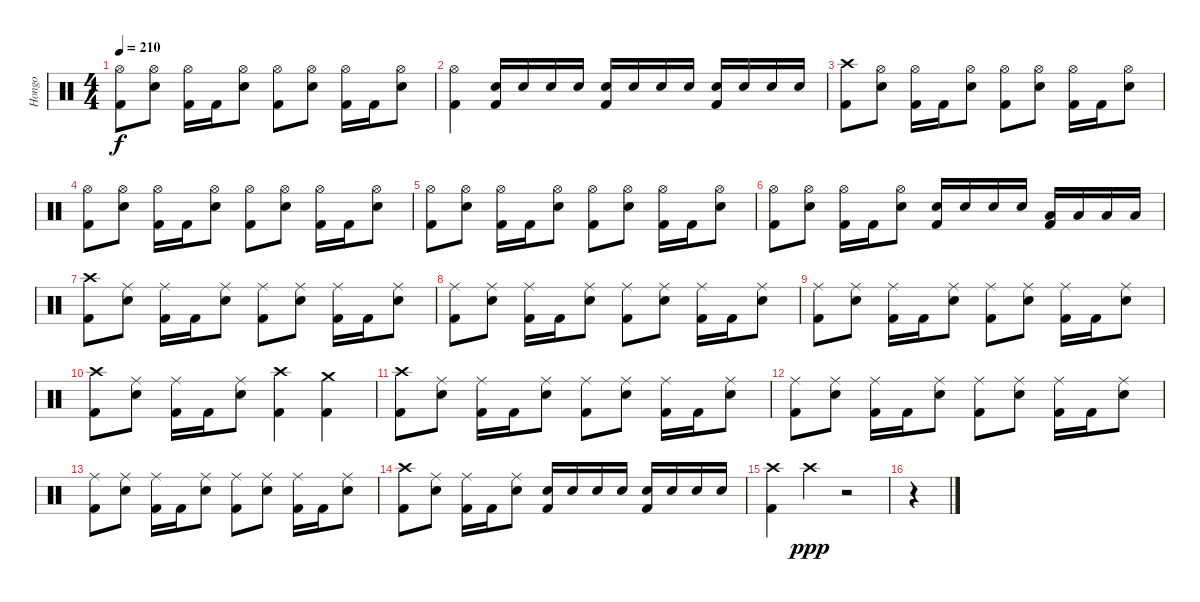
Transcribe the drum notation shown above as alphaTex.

\track ("Hongo" "Hongo") {instrument percussion}
\staff {score}
\articulation defaults
\ts (4 4)
\tempo 210
\clef neutral
\ks c
("Hi-Hat (open)" "Kick (hit) 2").8{dy f} ("Hi-Hat (open)" "Electric Snare (hit)").8 ("Hi-Hat (open)" "Kick (hit) 2").16 "Kick (hit) 2".16 ("Hi-Hat (open)" "Electric Snare (hit)").8 ("Hi-Hat (open)" "Kick (hit) 2").8 ("Hi-Hat (open)" "Electric Snare (hit)").8 ("Hi-Hat (open)" "Kick (hit) 2").16 "Kick (hit) 2".16 ("Hi-Hat (open)" "Electric Snare (hit)").8 |
("Hi-Hat (open)" "Kick (hit) 2").4 ("Electric Snare (hit)" "Kick (hit) 2").16 "Electric Snare (hit)".16 "Electric Snare (hit)".16 "Electric Snare (hit)".16 ("Electric Snare (hit)" "Kick (hit) 2").16 "Electric Snare (hit)".16 "Electric Snare (hit)".16 "Electric Snare (hit)".16 ("Electric Snare (hit)" "Kick (hit) 2").16 "Electric Snare (hit)".16 "Electric Snare (hit)".16 "Electric Snare (hit)".16 |
("Crash high (hit)" "Kick (hit) 2").8 ("Hi-Hat (open)" "Electric Snare (hit)").8 ("Hi-Hat (open)" "Kick (hit) 2").16 "Kick (hit) 2".16 ("Hi-Hat (open)" "Electric Snare (hit)").8 ("Hi-Hat (open)" "Kick (hit) 2").8 ("Hi-Hat (open)" "Electric Snare (hit)").8 ("Hi-Hat (open)" "Kick (hit) 2").16 "Kick (hit) 2".16 ("Hi-Hat (open)" "Electric Snare (hit)").8 |
("Hi-Hat (open)" "Kick (hit) 2").8 ("Hi-Hat (open)" "Electric Snare (hit)").8 ("Hi-Hat (open)" "Kick (hit) 2").16 "Kick (hit) 2".16 ("Hi-Hat (open)" "Electric Snare (hit)").8 ("Hi-Hat (open)" "Kick (hit) 2").8 ("Hi-Hat (open)" "Electric Snare (hit)").8 ("Hi-Hat (open)" "Kick (hit) 2").16 "Kick (hit) 2".16 ("Hi-Hat (open)" "Electric Snare (hit)").8 |
("Hi-Hat (open)" "Kick (hit) 2").8 ("Hi-Hat (open)" "Electric Snare (hit)").8 ("Hi-Hat (open)" "Kick (hit) 2").16 "Kick (hit) 2".16 ("Hi-Hat (open)" "Electric Snare (hit)").8 ("Hi-Hat (open)" "Kick (hit) 2").8 ("Hi-Hat (open)" "Electric Snare (hit)").8 ("Hi-Hat (open)" "Kick (hit) 2").16 "Kick (hit) 2".16 ("Hi-Hat (open)" "Electric Snare (hit)").8 |
("Hi-Hat (open)" "Kick (hit) 2").8 ("Hi-Hat (open)" "Electric Snare (hit)").8 ("Hi-Hat (open)" "Kick (hit) 2").16 "Kick (hit) 2".16 ("Hi-Hat (open)" "Electric Snare (hit)").8 ("Electric Snare (hit)" "Kick (hit) 2").16 "Electric Snare (hit)".16 "Electric Snare (hit)".16 "Electric Snare (hit)".16 ("Low Tom (hit)" "Kick (hit) 2").16 "Low Tom (hit)".16 "Low Tom (hit)".16 "Low Tom (hit)".16 |
("Crash high (hit)" "Kick (hit) 2").8 ("Ride (middle)" "Electric Snare (hit)").8 ("Ride (middle)" "Kick (hit) 2").16 "Kick (hit) 2".16 ("Ride (middle)" "Electric Snare (hit)").8 ("Ride (middle)" "Kick (hit) 2").8 ("Ride (middle)" "Electric Snare (hit)").8 ("Ride (middle)" "Kick (hit) 2").16 "Kick (hit) 2".16 ("Ride (middle)" "Electric Snare (hit)").8 |
("Ride (middle)" "Kick (hit) 2").8 ("Ride (middle)" "Electric Snare (hit)").8 ("Ride (middle)" "Kick (hit) 2").16 "Kick (hit) 2".16 ("Ride (middle)" "Electric Snare (hit)").8 ("Ride (middle)" "Kick (hit) 2").8 ("Ride (middle)" "Electric Snare (hit)").8 ("Ride (middle)" "Kick (hit) 2").16 "Kick (hit) 2".16 ("Ride (middle)" "Electric Snare (hit)").8 |
("Ride (middle)" "Kick (hit) 2").8 ("Ride (middle)" "Electric Snare (hit)").8 ("Ride (middle)" "Kick (hit) 2").16 "Kick (hit) 2".16 ("Ride (middle)" "Electric Snare (hit)").8 ("Ride (middle)" "Kick (hit) 2").8 ("Ride (middle)" "Electric Snare (hit)").8 ("Ride (middle)" "Kick (hit) 2").16 "Kick (hit) 2".16 ("Ride (middle)" "Electric Snare (hit)").8 |
("Crash high (hit)" "Kick (hit) 2").8 ("Ride (middle)" "Electric Snare (hit)").8 ("Ride (middle)" "Kick (hit) 2").16 "Kick (hit) 2".16 ("Ride (middle)" "Electric Snare (hit)").8 ("Crash high (hit)" "Kick (hit) 2").4 ("Crash medium (hit)" "Kick (hit) 2").4 |
("Crash high (hit)" "Kick (hit) 2").8 ("Ride (middle)" "Electric Snare (hit)").8 ("Ride (middle)" "Kick (hit) 2").16 "Kick (hit) 2".16 ("Ride (middle)" "Electric Snare (hit)").8 ("Ride (middle)" "Kick (hit) 2").8 ("Ride (middle)" "Electric Snare (hit)").8 ("Ride (middle)" "Kick (hit) 2").16 "Kick (hit) 2".16 ("Ride (middle)" "Electric Snare (hit)").8 |
("Ride (middle)" "Kick (hit) 2").8 ("Ride (middle)" "Electric Snare (hit)").8 ("Ride (middle)" "Kick (hit) 2").16 "Kick (hit) 2".16 ("Ride (middle)" "Electric Snare (hit)").8 ("Ride (middle)" "Kick (hit) 2").8 ("Ride (middle)" "Electric Snare (hit)").8 ("Ride (middle)" "Kick (hit) 2").16 "Kick (hit) 2".16 ("Ride (middle)" "Electric Snare (hit)").8 |
("Ride (middle)" "Kick (hit) 2").8 ("Ride (middle)" "Electric Snare (hit)").8 ("Ride (middle)" "Kick (hit) 2").16 "Kick (hit) 2".16 ("Ride (middle)" "Electric Snare (hit)").8 ("Ride (middle)" "Kick (hit) 2").8 ("Ride (middle)" "Electric Snare (hit)").8 ("Ride (middle)" "Kick (hit) 2").16 "Kick (hit) 2".16 ("Ride (middle)" "Electric Snare (hit)").8 |
("Crash high (hit)" "Kick (hit) 2").8 ("Ride (middle)" "Electric Snare (hit)").8 ("Ride (middle)" "Kick (hit) 2").16 "Kick (hit) 2".16 ("Ride (middle)" "Electric Snare (hit)").8 ("Electric Snare (hit)" "Kick (hit) 2").16 "Electric Snare (hit)".16 "Electric Snare (hit)".16 "Electric Snare (hit)".16 ("Electric Snare (hit)" "Kick (hit) 2").16 "Electric Snare (hit)".16 "Electric Snare (hit)".16 "Electric Snare (hit)".16 |
("Crash high (hit)" "Kick (hit) 2").4 "Crash high (hit)".4{dy ppp} r.2 |
r.4
